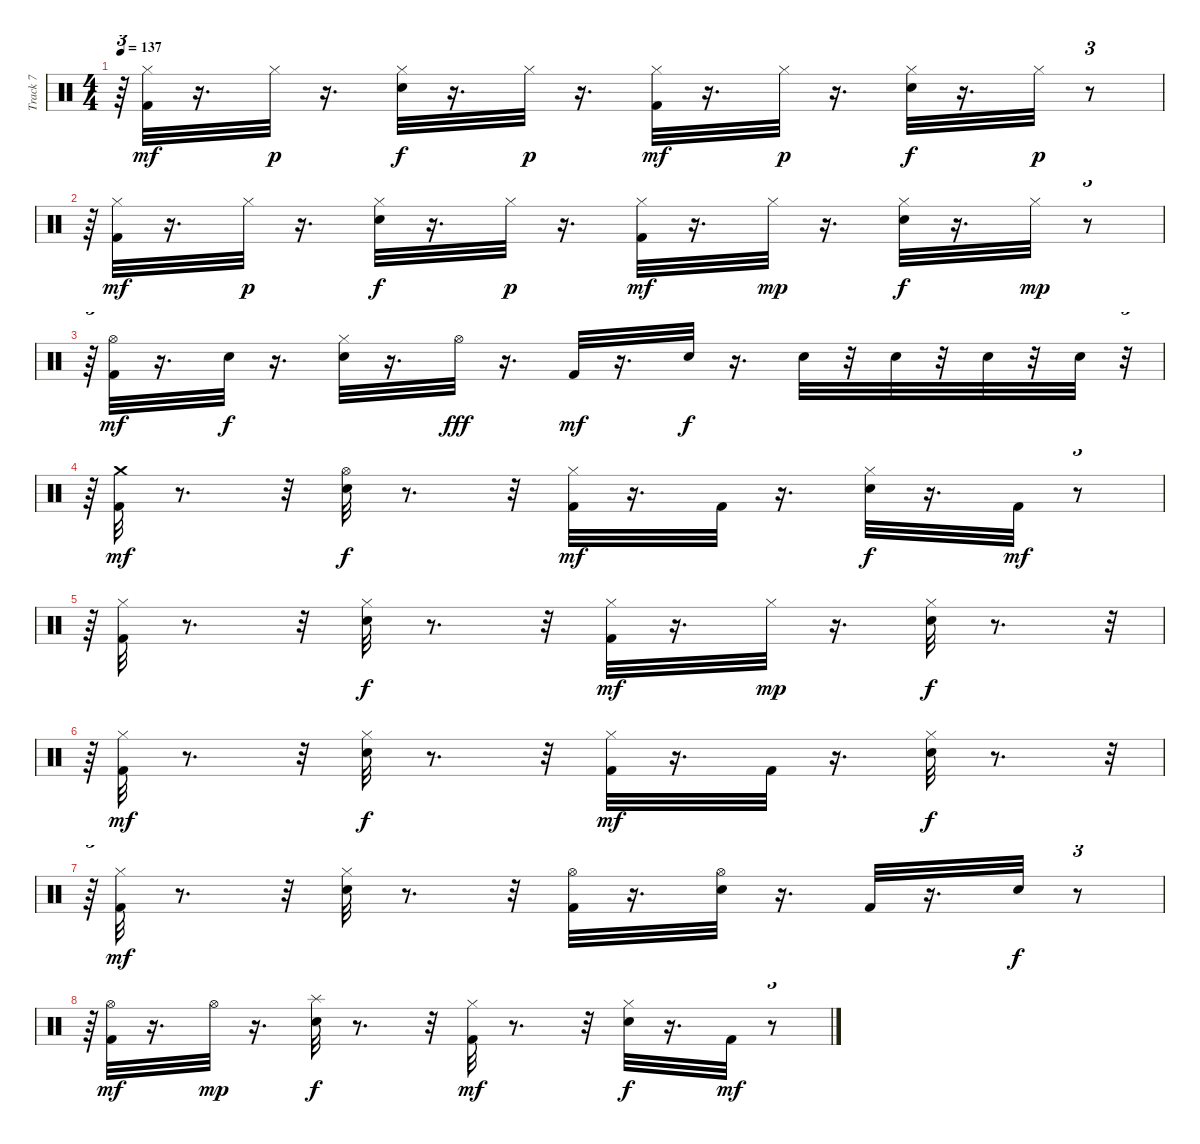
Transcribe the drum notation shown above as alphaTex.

\track ("Track 7" "Track 7") {instrument percussion}
\staff {score}
\articulation defaults
\ts (4 4)
\tempo 137
\clef neutral
\ks c
r.64{tu (3 2) dy mf} ("Hi-Hat (closed)" "Kick (hit) 2").32 r.16{d} "Hi-Hat (closed)".32{dy p} r.16{d} ("Hi-Hat (closed)" "Snare (hit) 2").32{dy f} r.16{d} "Hi-Hat (closed)".32{dy p} r.16{d} ("Hi-Hat (closed)" "Kick (hit) 2").32{dy mf} r.16{d} "Hi-Hat (closed)".32{dy p} r.16{d} ("Hi-Hat (closed)" "Snare (hit) 2").32{dy f} r.16{d} "Hi-Hat (closed)".32{dy p} r.8{tu (3 2)} |
r.64{tu (3 2)} ("Hi-Hat (closed)" "Kick (hit) 2").32{dy mf} r.16{d} "Hi-Hat (closed)".32{dy p} r.16{d} ("Hi-Hat (closed)" "Snare (hit) 2").32{dy f} r.16{d} "Hi-Hat (closed)".32{dy p} r.16{d} ("Hi-Hat (closed)" "Kick (hit) 2").32{dy mf} r.16{d} "Hi-Hat (closed)".32{dy mp} r.16{d} ("Hi-Hat (closed)" "Snare (hit) 2").32{dy f} r.16{d} "Hi-Hat (closed)".32{dy mp} r.8{tu (3 2)} |
r.64{tu (3 2)} ("Hi-Hat (open)" "Kick (hit) 2").32{dy mf} r.16{d} "Snare (hit) 2".32{dy f} r.16{d} ("Hi-Hat (closed)" "Snare (hit) 2").32 r.16{d} "Hi-Hat (open)".32{dy fff} r.16{d} "Kick (hit) 2".32{dy mf} r.16{d} "Snare (hit) 2".32{dy f} r.16{d} "Snare (hit) 2".32 r.32 "Snare (hit) 2".32 r.32 "Snare (hit) 2".32 r.32 "Snare (hit) 2".32 r.32{tu (3 2)} |
r.64{tu (3 2)} ("Crash medium (hit)" "Kick (hit) 2").32{dy mf} r.8{d} r.32 ("Hi-Hat (open)" "Snare (hit) 2").32{dy f} r.8{d} r.32 ("Hi-Hat (closed)" "Kick (hit) 2").32{dy mf} r.16{d} "Kick (hit) 2".32 r.16{d} ("Hi-Hat (closed)" "Snare (hit) 2").32{dy f} r.16{d} "Kick (hit) 2".32{dy mf} r.8{tu (3 2)} |
r.64{tu (3 2)} ("Hi-Hat (closed)" "Kick (hit) 2").32 r.8{d} r.32 ("Hi-Hat (closed)" "Snare (hit) 2").32{dy f} r.8{d} r.32 ("Hi-Hat (closed)" "Kick (hit) 2").32{dy mf} r.16{d} "Hi-Hat (closed)".32{dy mp} r.16{d} ("Hi-Hat (closed)" "Snare (hit) 2").32{dy f} r.8{d} r.32{tu (3 2)} |
r.64{tu (3 2)} ("Hi-Hat (closed)" "Kick (hit) 2").32{dy mf} r.8{d} r.32 ("Hi-Hat (closed)" "Snare (hit) 2").32{dy f} r.8{d} r.32 ("Hi-Hat (closed)" "Kick (hit) 2").32{dy mf} r.16{d} "Kick (hit) 2".32 r.16{d} ("Hi-Hat (closed)" "Snare (hit) 2").32{dy f} r.8{d} r.32{tu (3 2)} |
r.64{tu (3 2)} ("Hi-Hat (closed)" "Kick (hit) 2").32{dy mf} r.8{d} r.32 ("Hi-Hat (closed)" "Snare (hit) 2").32 r.8{d} r.32 ("Hi-Hat (open)" "Kick (hit) 2").32 r.16{d} ("Hi-Hat (open)" "Snare (hit) 2").32 r.16{d} "Kick (hit) 2".32 r.16{d} "Snare (hit) 2".32{dy f} r.8{tu (3 2)} |
r.64{tu (3 2)} ("Hi-Hat (open)" "Kick (hit) 2").32{dy mf} r.16{d} "Hi-Hat (open)".32{dy mp} r.16{d} ("Splash (hit)" "Snare (hit) 2").32{dy f} r.8{d} r.32 ("Hi-Hat (closed)" "Kick (hit) 2").32{dy mf} r.8{d} r.32 ("Hi-Hat (closed)" "Snare (hit) 2").32{dy f} r.16{d} "Kick (hit) 2".32{dy mf} r.8{tu (3 2)}
